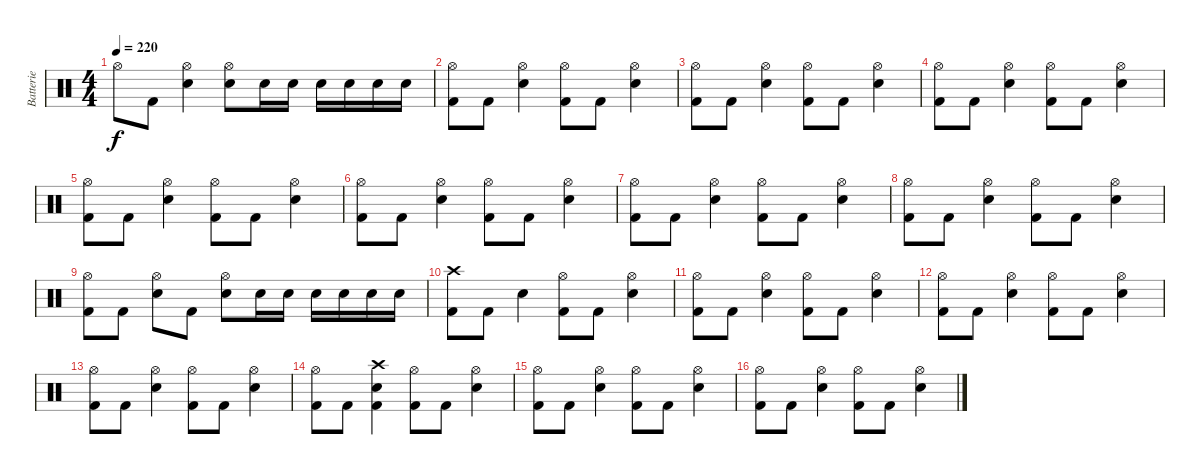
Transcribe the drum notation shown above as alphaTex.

\track ("Batterie" "Batterie") {instrument percussion}
\staff {score}
\articulation defaults
\ts (4 4)
\tempo 220
\clef neutral
\ks c "Hi-Hat (open)".8{dy f} "Kick (hit) 2".8
("Hi-Hat (open)" "Electric Snare (hit)").4 ("Hi-Hat (open)" "Electric Snare (hit)").8 "Electric Snare (hit)".16 "Electric Snare (hit)".16 "Electric Snare (hit)".16 "Electric Snare (hit)".16 "Electric Snare (hit)".16 "Electric Snare (hit)".16 |
("Hi-Hat (open)" "Kick (hit) 2").8 "Kick (hit) 2".8 ("Hi-Hat (open)" "Electric Snare (hit)").4 ("Hi-Hat (open)" "Kick (hit) 2").8 "Kick (hit) 2".8 ("Hi-Hat (open)" "Electric Snare (hit)").4 |
("Hi-Hat (open)" "Kick (hit) 2").8 "Kick (hit) 2".8 ("Hi-Hat (open)" "Electric Snare (hit)").4 ("Hi-Hat (open)" "Kick (hit) 2").8 "Kick (hit) 2".8 ("Hi-Hat (open)" "Electric Snare (hit)").4 |
("Hi-Hat (open)" "Kick (hit) 2").8 "Kick (hit) 2".8 ("Hi-Hat (open)" "Electric Snare (hit)").4 ("Hi-Hat (open)" "Kick (hit) 2").8 "Kick (hit) 2".8 ("Hi-Hat (open)" "Electric Snare (hit)").4 |
("Hi-Hat (open)" "Kick (hit) 2").8 "Kick (hit) 2".8 ("Hi-Hat (open)" "Electric Snare (hit)").4 ("Hi-Hat (open)" "Kick (hit) 2").8 "Kick (hit) 2".8 ("Hi-Hat (open)" "Electric Snare (hit)").4 |
("Hi-Hat (open)" "Kick (hit) 2").8 "Kick (hit) 2".8 ("Hi-Hat (open)" "Electric Snare (hit)").4 ("Hi-Hat (open)" "Kick (hit) 2").8 "Kick (hit) 2".8 ("Hi-Hat (open)" "Electric Snare (hit)").4 |
("Hi-Hat (open)" "Kick (hit) 2").8 "Kick (hit) 2".8 ("Hi-Hat (open)" "Electric Snare (hit)").4 ("Hi-Hat (open)" "Kick (hit) 2").8 "Kick (hit) 2".8 ("Hi-Hat (open)" "Electric Snare (hit)").4 |
("Hi-Hat (open)" "Kick (hit) 2").8 "Kick (hit) 2".8 ("Hi-Hat (open)" "Electric Snare (hit)").4 ("Hi-Hat (open)" "Kick (hit) 2").8 "Kick (hit) 2".8 ("Hi-Hat (open)" "Electric Snare (hit)").4 |
("Hi-Hat (open)" "Kick (hit) 2").8 "Kick (hit) 2".8 ("Hi-Hat (open)" "Electric Snare (hit)").8 "Kick (hit) 2".8 ("Hi-Hat (open)" "Electric Snare (hit)").8 "Electric Snare (hit)".16 "Electric Snare (hit)".16 "Electric Snare (hit)".16 "Electric Snare (hit)".16 "Electric Snare (hit)".16 "Electric Snare (hit)".16 |
("Crash high (hit)" "Kick (hit) 2").8 "Kick (hit) 2".8 "Electric Snare (hit)".4 ("Hi-Hat (open)" "Kick (hit) 2").8 "Kick (hit) 2".8 ("Hi-Hat (open)" "Electric Snare (hit)").4 |
("Hi-Hat (open)" "Kick (hit) 2").8 "Kick (hit) 2".8 ("Hi-Hat (open)" "Electric Snare (hit)").4 ("Hi-Hat (open)" "Kick (hit) 2").8 "Kick (hit) 2".8 ("Hi-Hat (open)" "Electric Snare (hit)").4 |
("Hi-Hat (open)" "Kick (hit) 2").8 "Kick (hit) 2".8 ("Hi-Hat (open)" "Electric Snare (hit)").4 ("Hi-Hat (open)" "Kick (hit) 2").8 "Kick (hit) 2".8 ("Hi-Hat (open)" "Electric Snare (hit)").4 |
("Hi-Hat (open)" "Kick (hit) 2").8 "Kick (hit) 2".8 ("Hi-Hat (open)" "Electric Snare (hit)").4 ("Hi-Hat (open)" "Kick (hit) 2").8 "Kick (hit) 2".8 ("Hi-Hat (open)" "Electric Snare (hit)").4 |
("Hi-Hat (open)" "Kick (hit) 2").8 "Kick (hit) 2".8 ("Crash high (hit)" "Electric Snare (hit)" "Kick (hit) 2").4 ("Hi-Hat (open)" "Kick (hit) 2").8 "Kick (hit) 2".8 ("Hi-Hat (open)" "Electric Snare (hit)").4 |
("Hi-Hat (open)" "Kick (hit) 2").8 "Kick (hit) 2".8 ("Hi-Hat (open)" "Electric Snare (hit)").4 ("Hi-Hat (open)" "Kick (hit) 2").8 "Kick (hit) 2".8 ("Hi-Hat (open)" "Electric Snare (hit)").4 |
("Hi-Hat (open)" "Kick (hit) 2").8 "Kick (hit) 2".8 ("Hi-Hat (open)" "Electric Snare (hit)").4 ("Hi-Hat (open)" "Kick (hit) 2").8 "Kick (hit) 2".8 ("Hi-Hat (open)" "Electric Snare (hit)").4
